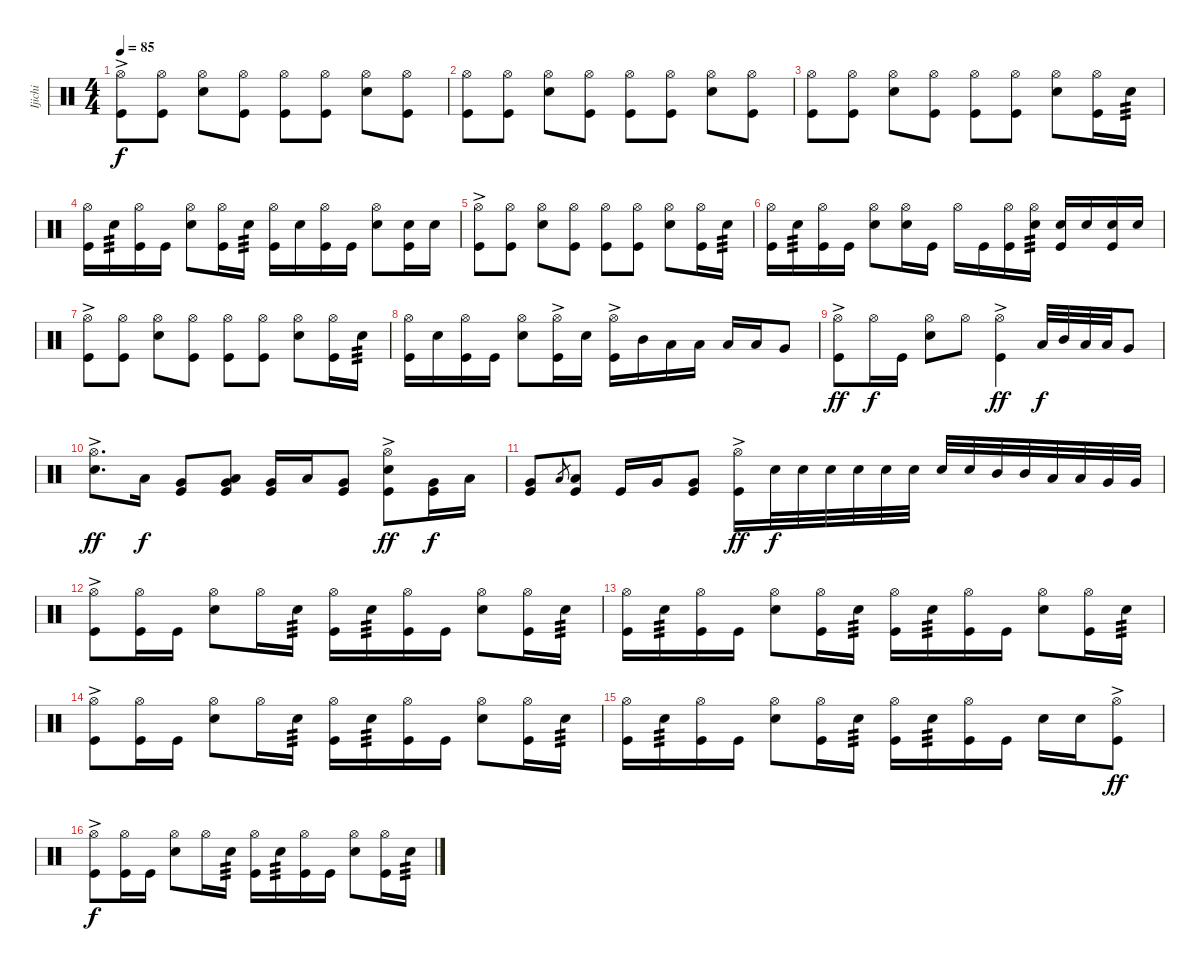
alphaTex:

\track ("Ijichi" "Ijichi") {instrument percussion}
\staff {score}
\articulation defaults
\ts (4 4)
\tempo 85
\clef neutral
\ks c
("Hi-Hat (open)"{ac} "Kick (hit)").8{dy f} ("Hi-Hat (open)" "Kick (hit)").8 ("Hi-Hat (open)" "Snare (hit) 2").8 ("Hi-Hat (open)" "Kick (hit)").8 ("Hi-Hat (open)" "Kick (hit)").8 ("Hi-Hat (open)" "Kick (hit)").8 ("Hi-Hat (open)" "Snare (hit) 2").8 ("Hi-Hat (open)" "Kick (hit)").8 |
("Hi-Hat (open)" "Kick (hit)").8 ("Hi-Hat (open)" "Kick (hit)").8 ("Hi-Hat (open)" "Snare (hit) 2").8 ("Hi-Hat (open)" "Kick (hit)").8 ("Hi-Hat (open)" "Kick (hit)").8 ("Hi-Hat (open)" "Kick (hit)").8 ("Hi-Hat (open)" "Snare (hit) 2").8 ("Hi-Hat (open)" "Kick (hit)").8 |
("Hi-Hat (open)" "Kick (hit)").8 ("Hi-Hat (open)" "Kick (hit)").8 ("Hi-Hat (open)" "Snare (hit) 2").8 ("Hi-Hat (open)" "Kick (hit)").8 ("Hi-Hat (open)" "Kick (hit)").8 ("Hi-Hat (open)" "Kick (hit)").8 ("Hi-Hat (open)" "Snare (hit) 2").8 ("Hi-Hat (open)" "Kick (hit)").16 "Snare (hit) 2".16{tp 3} |
("Hi-Hat (open)" "Kick (hit)").16 "Snare (hit) 2".16{tp 3} ("Hi-Hat (open)" "Kick (hit)").16 "Kick (hit)".16 ("Hi-Hat (open)" "Snare (hit) 2").8 ("Hi-Hat (open)" "Kick (hit)").16 "Snare (hit) 2".16{tp 3} ("Hi-Hat (open)" "Kick (hit)").16 "Snare (hit) 2".16 ("Hi-Hat (open)" "Kick (hit)").16 "Kick (hit)".16 ("Hi-Hat (open)" "Snare (hit) 2").8 ("Snare (hit) 2" "Kick (hit)").16 "Snare (hit) 2".16 |
("Hi-Hat (open)"{ac} "Kick (hit)").8 ("Hi-Hat (open)" "Kick (hit)").8 ("Hi-Hat (open)" "Snare (hit) 2").8 ("Hi-Hat (open)" "Kick (hit)").8 ("Hi-Hat (open)" "Kick (hit)").8 ("Hi-Hat (open)" "Kick (hit)").8 ("Hi-Hat (open)" "Snare (hit) 2").8 ("Hi-Hat (open)" "Kick (hit)").16 "Snare (hit) 2".16{tp 3} |
("Hi-Hat (open)" "Kick (hit)").16 "Snare (hit) 2".16{tp 3} ("Hi-Hat (open)" "Kick (hit)").16 "Kick (hit)".16 ("Hi-Hat (open)" "Snare (hit) 2").8 ("Hi-Hat (open)" "Snare (hit) 2").16 "Kick (hit)".16 "Hi-Hat (open)".16 "Kick (hit)".16 ("Hi-Hat (open)" "Kick (hit)").16 ("Hi-Hat (open)" "Snare (hit) 2").16{tp 3} ("Snare (hit) 2" "Kick (hit)").16 "Snare (hit) 2".16 ("Snare (hit) 2" "Kick (hit)").16 "Snare (hit) 2".16 |
("Hi-Hat (open)"{ac} "Kick (hit)").8 ("Hi-Hat (open)" "Kick (hit)").8 ("Hi-Hat (open)" "Snare (hit) 2").8 ("Hi-Hat (open)" "Kick (hit)").8 ("Hi-Hat (open)" "Kick (hit)").8 ("Hi-Hat (open)" "Kick (hit)").8 ("Hi-Hat (open)" "Snare (hit) 2").8 ("Hi-Hat (open)" "Kick (hit)").16 "Snare (hit) 2".16{tp 3} |
("Hi-Hat (open)" "Kick (hit)").16 "Snare (hit) 2".16 ("Hi-Hat (open)" "Kick (hit)").16 "Kick (hit)".16 ("Hi-Hat (open)" "Snare (hit) 2").8 ("Hi-Hat (open)"{ac} "Kick (hit)").16 "Snare (hit) 2".16 ("Hi-Hat (open)"{ac} "Kick (hit)").16 "Mid Tom (hit)".16 "Low Tom (hit)".16 "Low Tom (hit)".16 "Low Tom (hit)".16 "Low Tom (hit)".16 "Very Low Tom (hit)".8 |
("Hi-Hat (open)"{ac} "Kick (hit)").8{dy ff} "Hi-Hat (open)".16{dy f} "Kick (hit)".16 ("Hi-Hat (open)" "Snare (hit) 2").8 "Hi-Hat (open)".8 ("Hi-Hat (open)"{ac} "Kick (hit)").4{dy ff} "Low Tom (hit)".32{dy f} "Mid Tom (hit)".32 "Low Tom (hit)".32 "Low Tom (hit)".32 "Very Low Tom (hit)".8 |
("Hi-Hat (open)"{ac} "Snare (hit) 2").8{d dy ff} "Low Tom (hit)".16{dy f} ("Very Low Tom (hit)" "Kick (hit)").8 ("Low Tom (hit)" "Very Low Tom (hit)" "Kick (hit)").8 ("Very Low Tom (hit)" "Kick (hit)").16 "Low Tom (hit)".16 ("Very Low Tom (hit)" "Kick (hit)").8 ("Hi-Hat (open)"{ac} "Snare (hit) 2" "Kick (hit)").8{dy ff} ("Very Low Tom (hit)" "Kick (hit)").16{dy f} "Low Tom (hit)".16 |
("Very Low Tom (hit)" "Kick (hit)").8 "Low Tom (hit)".8{gr} ("Low Tom (hit)" "Kick (hit)").8 "Kick (hit)".16 "Very Low Tom (hit)".16 ("Very Low Tom (hit)" "Kick (hit)").8 ("Hi-Hat (open)"{ac} "Kick (hit)").16{dy ff} "Snare (hit) 2".32{dy f} "Snare (hit) 2".32 "Snare (hit) 2".32 "Snare (hit) 2".32 "Snare (hit) 2".32 "Snare (hit) 2".32 "Snare (hit) 2".32 "Snare (hit) 2".32 "Mid Tom (hit)".32 "Mid Tom (hit)".32 "Low Tom (hit)".32 "Low Tom (hit)".32 "Very Low Tom (hit)".32 "Very Low Tom (hit)".32 |
("Hi-Hat (open)"{ac} "Kick (hit)").8 ("Hi-Hat (open)" "Kick (hit)").16 "Kick (hit)".16 ("Hi-Hat (open)" "Snare (hit) 2").8 "Hi-Hat (open)".16 "Snare (hit) 2".16{tp 3} ("Hi-Hat (open)" "Kick (hit)").16 "Snare (hit) 2".16{tp 3} ("Hi-Hat (open)" "Kick (hit)").16 "Kick (hit)".16 ("Hi-Hat (open)" "Snare (hit) 2").8 ("Hi-Hat (open)" "Kick (hit)").16 "Snare (hit) 2".16{tp 3} |
("Hi-Hat (open)" "Kick (hit)").16 "Snare (hit) 2".16{tp 3} ("Hi-Hat (open)" "Kick (hit)").16 "Kick (hit)".16 ("Hi-Hat (open)" "Snare (hit) 2").8 ("Hi-Hat (open)" "Kick (hit)").16 "Snare (hit) 2".16{tp 3} ("Hi-Hat (open)" "Kick (hit)").16 "Snare (hit) 2".16{tp 3} ("Hi-Hat (open)" "Kick (hit)").16 "Kick (hit)".16 ("Hi-Hat (open)" "Snare (hit) 2").8 ("Hi-Hat (open)" "Kick (hit)").16 "Snare (hit) 2".16{tp 3} |
("Hi-Hat (open)"{ac} "Kick (hit)").8 ("Hi-Hat (open)" "Kick (hit)").16 "Kick (hit)".16 ("Hi-Hat (open)" "Snare (hit) 2").8 "Hi-Hat (open)".16 "Snare (hit) 2".16{tp 3} ("Hi-Hat (open)" "Kick (hit)").16 "Snare (hit) 2".16{tp 3} ("Hi-Hat (open)" "Kick (hit)").16 "Kick (hit)".16 ("Hi-Hat (open)" "Snare (hit) 2").8 ("Hi-Hat (open)" "Kick (hit)").16 "Snare (hit) 2".16{tp 3} |
("Hi-Hat (open)" "Kick (hit)").16 "Snare (hit) 2".16{tp 3} ("Hi-Hat (open)" "Kick (hit)").16 "Kick (hit)".16 ("Hi-Hat (open)" "Snare (hit) 2").8 ("Hi-Hat (open)" "Kick (hit)").16 "Snare (hit) 2".16{tp 3} ("Hi-Hat (open)" "Kick (hit)").16 "Snare (hit) 2".16{tp 3} ("Hi-Hat (open)" "Kick (hit)").16 "Kick (hit)".16 "Snare (hit) 2".16 "Snare (hit) 2".16 ("Hi-Hat (open)"{ac} "Kick (hit)").8{dy ff} |
("Hi-Hat (open)"{ac} "Kick (hit)").8{dy f} ("Hi-Hat (open)" "Kick (hit)").16 "Kick (hit)".16 ("Hi-Hat (open)" "Snare (hit) 2").8 "Hi-Hat (open)".16 "Snare (hit) 2".16{tp 3} ("Hi-Hat (open)" "Kick (hit)").16 "Snare (hit) 2".16{tp 3} ("Hi-Hat (open)" "Kick (hit)").16 "Kick (hit)".16 ("Hi-Hat (open)" "Snare (hit) 2").8 ("Hi-Hat (open)" "Kick (hit)").16 "Snare (hit) 2".16{tp 3}
